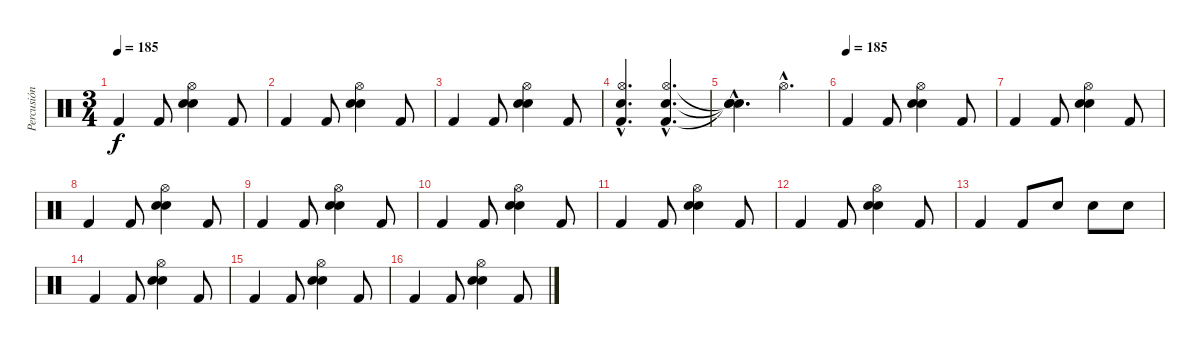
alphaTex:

\track ("Percusión" "Percusión") {instrument percussion}
\staff {score}
\articulation defaults
\ts (3 4)
\tempo 185
\clef neutral
\ks c "Kick (hit) 2".4{dy f} "Kick (hit) 2".8
("Hi-Hat (open)" "Electric Snare (hit)" "Snare (hit) 2").4 "Kick (hit) 2".8 |
"Kick (hit) 2".4 "Kick (hit) 2".8 ("Hi-Hat (open)" "Electric Snare (hit)" "Snare (hit) 2").4 "Kick (hit) 2".8 |
"Kick (hit) 2".4 "Kick (hit) 2".8 ("Hi-Hat (open)" "Electric Snare (hit)" "Snare (hit) 2").4 "Kick (hit) 2".8 |
("Hi-Hat (open)"{hac} "Electric Snare (hit)"{hac} "Kick (hit) 2"{hac}).4{d} ("Hi-Hat (open)"{hac} "Electric Snare (hit)"{hac} "Kick (hit) 2"{hac}).4{d} |
("Snare (hit)"{hac t} "Snare (hit)"{hac t} "Snare (hit)"{hac t}).4{d} "Hi-Hat (open)"{hac}.4{d} |
\tempo (185)
"Kick (hit) 2".4 "Kick (hit) 2".8 ("Hi-Hat (open)" "Electric Snare (hit)" "Snare (hit) 2").4 "Kick (hit) 2".8 |
"Kick (hit) 2".4 "Kick (hit) 2".8 ("Hi-Hat (open)" "Electric Snare (hit)" "Snare (hit) 2").4 "Kick (hit) 2".8 |
"Kick (hit) 2".4 "Kick (hit) 2".8 ("Hi-Hat (open)" "Electric Snare (hit)" "Snare (hit) 2").4 "Kick (hit) 2".8 |
"Kick (hit) 2".4 "Kick (hit) 2".8 ("Hi-Hat (open)" "Electric Snare (hit)" "Snare (hit) 2").4 "Kick (hit) 2".8 |
"Kick (hit) 2".4 "Kick (hit) 2".8 ("Hi-Hat (open)" "Electric Snare (hit)" "Snare (hit) 2").4 "Kick (hit) 2".8 |
"Kick (hit) 2".4 "Kick (hit) 2".8 ("Hi-Hat (open)" "Electric Snare (hit)" "Snare (hit) 2").4 "Kick (hit) 2".8 |
"Kick (hit) 2".4 "Kick (hit) 2".8 ("Hi-Hat (open)" "Electric Snare (hit)" "Snare (hit) 2").4 "Kick (hit) 2".8 |
"Kick (hit) 2".4 "Kick (hit) 2".8 "Electric Snare (hit)".8 "Electric Snare (hit)".8 "Electric Snare (hit)".8 |
"Kick (hit) 2".4 "Kick (hit) 2".8 ("Hi-Hat (open)" "Electric Snare (hit)" "Snare (hit) 2").4 "Kick (hit) 2".8 |
"Kick (hit) 2".4 "Kick (hit) 2".8 ("Hi-Hat (open)" "Electric Snare (hit)" "Snare (hit) 2").4 "Kick (hit) 2".8 |
"Kick (hit) 2".4 "Kick (hit) 2".8 ("Hi-Hat (open)" "Electric Snare (hit)" "Snare (hit) 2").4 "Kick (hit) 2".8
